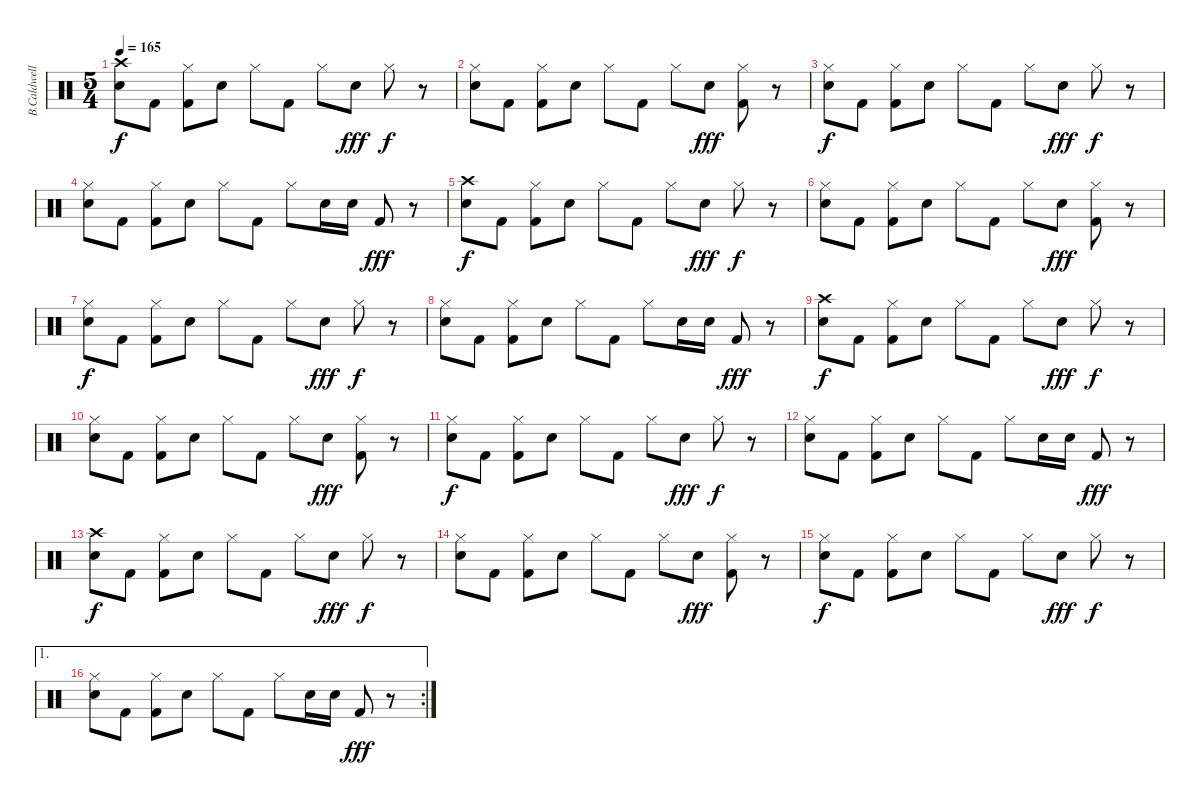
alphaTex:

\track ("B.Caldwell" "B.Caldwell") {instrument percussion}
\staff {score}
\articulation defaults
\ts (5 4)
\tempo 165
\clef neutral
\ks c
("Crash high (hit)" "Snare (hit) 2").8{dy f} "Kick (hit) 2".8 ("Hi-Hat (closed)" "Kick (hit) 2").8 "Snare (hit) 2".8 "Hi-Hat (closed)".8 "Kick (hit) 2".8 "Hi-Hat (closed)".8 "Snare (hit) 2".8{dy fff} "Hi-Hat (closed)".8{dy f} r.8 |
("Hi-Hat (closed)" "Snare (hit) 2").8 "Kick (hit) 2".8 ("Hi-Hat (closed)" "Kick (hit) 2").8 "Snare (hit) 2".8 "Hi-Hat (closed)".8 "Kick (hit) 2".8 "Hi-Hat (closed)".8 "Snare (hit) 2".8{dy fff} ("Hi-Hat (closed)" "Kick (hit) 2").8 r.8 |
("Hi-Hat (closed)" "Snare (hit) 2").8{dy f} "Kick (hit) 2".8 ("Hi-Hat (closed)" "Kick (hit) 2").8 "Snare (hit) 2".8 "Hi-Hat (closed)".8 "Kick (hit) 2".8 "Hi-Hat (closed)".8 "Snare (hit) 2".8{dy fff} "Hi-Hat (closed)".8{dy f} r.8 |
("Hi-Hat (closed)" "Snare (hit) 2").8 "Kick (hit) 2".8 ("Hi-Hat (closed)" "Kick (hit) 2").8 "Snare (hit) 2".8 "Hi-Hat (closed)".8 "Kick (hit) 2".8 "Hi-Hat (closed)".8 "Snare (hit) 2".16 "Snare (hit) 2".16 "Kick (hit) 2".8{dy fff} r.8 |
("Crash high (hit)" "Snare (hit) 2").8{dy f} "Kick (hit) 2".8 ("Hi-Hat (closed)" "Kick (hit) 2").8 "Snare (hit) 2".8 "Hi-Hat (closed)".8 "Kick (hit) 2".8 "Hi-Hat (closed)".8 "Snare (hit) 2".8{dy fff} "Hi-Hat (closed)".8{dy f} r.8 |
("Hi-Hat (closed)" "Snare (hit) 2").8 "Kick (hit) 2".8 ("Hi-Hat (closed)" "Kick (hit) 2").8 "Snare (hit) 2".8 "Hi-Hat (closed)".8 "Kick (hit) 2".8 "Hi-Hat (closed)".8 "Snare (hit) 2".8{dy fff} ("Hi-Hat (closed)" "Kick (hit) 2").8 r.8 |
("Hi-Hat (closed)" "Snare (hit) 2").8{dy f} "Kick (hit) 2".8 ("Hi-Hat (closed)" "Kick (hit) 2").8 "Snare (hit) 2".8 "Hi-Hat (closed)".8 "Kick (hit) 2".8 "Hi-Hat (closed)".8 "Snare (hit) 2".8{dy fff} "Hi-Hat (closed)".8{dy f} r.8 |
("Hi-Hat (closed)" "Snare (hit) 2").8 "Kick (hit) 2".8 ("Hi-Hat (closed)" "Kick (hit) 2").8 "Snare (hit) 2".8 "Hi-Hat (closed)".8 "Kick (hit) 2".8 "Hi-Hat (closed)".8 "Snare (hit) 2".16 "Snare (hit) 2".16 "Kick (hit) 2".8{dy fff} r.8 |
("Crash high (hit)" "Snare (hit) 2").8{dy f} "Kick (hit) 2".8 ("Hi-Hat (closed)" "Kick (hit) 2").8 "Snare (hit) 2".8 "Hi-Hat (closed)".8 "Kick (hit) 2".8 "Hi-Hat (closed)".8 "Snare (hit) 2".8{dy fff} "Hi-Hat (closed)".8{dy f} r.8 |
("Hi-Hat (closed)" "Snare (hit) 2").8 "Kick (hit) 2".8 ("Hi-Hat (closed)" "Kick (hit) 2").8 "Snare (hit) 2".8 "Hi-Hat (closed)".8 "Kick (hit) 2".8 "Hi-Hat (closed)".8 "Snare (hit) 2".8{dy fff} ("Hi-Hat (closed)" "Kick (hit) 2").8 r.8 |
("Hi-Hat (closed)" "Snare (hit) 2").8{dy f} "Kick (hit) 2".8 ("Hi-Hat (closed)" "Kick (hit) 2").8 "Snare (hit) 2".8 "Hi-Hat (closed)".8 "Kick (hit) 2".8 "Hi-Hat (closed)".8 "Snare (hit) 2".8{dy fff} "Hi-Hat (closed)".8{dy f} r.8 |
("Hi-Hat (closed)" "Snare (hit) 2").8 "Kick (hit) 2".8 ("Hi-Hat (closed)" "Kick (hit) 2").8 "Snare (hit) 2".8 "Hi-Hat (closed)".8 "Kick (hit) 2".8 "Hi-Hat (closed)".8 "Snare (hit) 2".16 "Snare (hit) 2".16 "Kick (hit) 2".8{dy fff} r.8 |
("Crash high (hit)" "Snare (hit) 2").8{dy f} "Kick (hit) 2".8 ("Hi-Hat (closed)" "Kick (hit) 2").8 "Snare (hit) 2".8 "Hi-Hat (closed)".8 "Kick (hit) 2".8 "Hi-Hat (closed)".8 "Snare (hit) 2".8{dy fff} "Hi-Hat (closed)".8{dy f} r.8 |
("Hi-Hat (closed)" "Snare (hit) 2").8 "Kick (hit) 2".8 ("Hi-Hat (closed)" "Kick (hit) 2").8 "Snare (hit) 2".8 "Hi-Hat (closed)".8 "Kick (hit) 2".8 "Hi-Hat (closed)".8 "Snare (hit) 2".8{dy fff} ("Hi-Hat (closed)" "Kick (hit) 2").8 r.8 |
("Hi-Hat (closed)" "Snare (hit) 2").8{dy f} "Kick (hit) 2".8 ("Hi-Hat (closed)" "Kick (hit) 2").8 "Snare (hit) 2".8 "Hi-Hat (closed)".8 "Kick (hit) 2".8 "Hi-Hat (closed)".8 "Snare (hit) 2".8{dy fff} "Hi-Hat (closed)".8{dy f} r.8 |
\ae 1
\rc 2
("Hi-Hat (closed)" "Snare (hit) 2").8 "Kick (hit) 2".8 ("Hi-Hat (closed)" "Kick (hit) 2").8 "Snare (hit) 2".8 "Hi-Hat (closed)".8 "Kick (hit) 2".8 "Hi-Hat (closed)".8 "Snare (hit) 2".16 "Snare (hit) 2".16 "Kick (hit) 2".8{dy fff} r.8
